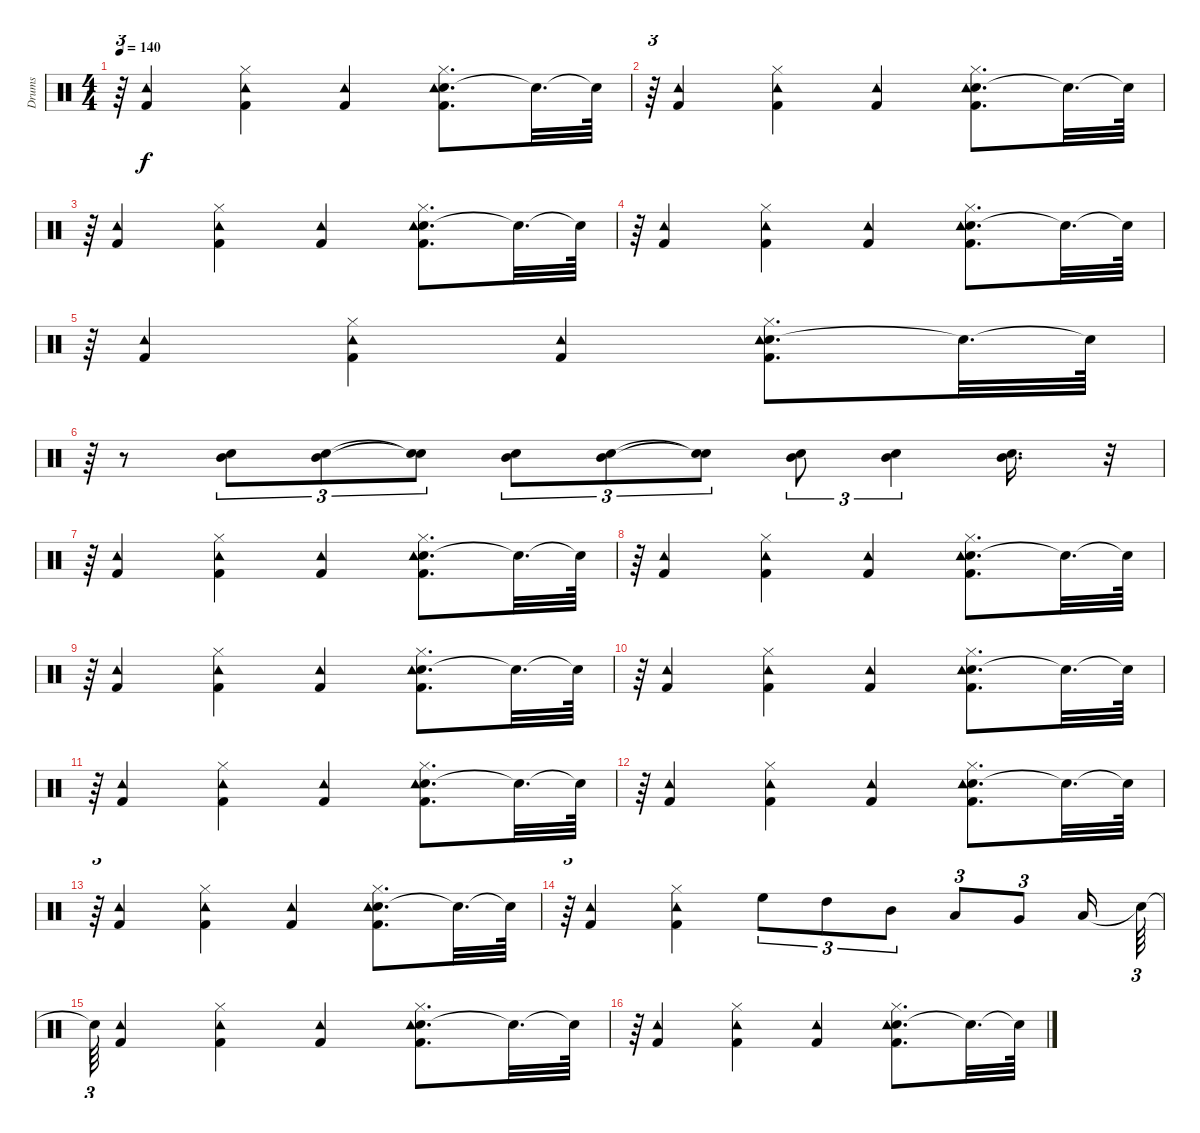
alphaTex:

\track ("Drums" "Drums") {instrument percussion}
\staff {score}
\articulation defaults
\ts (4 4)
\tempo 140
\clef neutral
\ks c
r.64{tu (3 2) dy f} ("Tambourine (hit)" "Kick (hit) 2").4 ("Hi-Hat (closed)" "Tambourine (hit)" "Kick (hit) 2").4 ("Tambourine (hit)" "Kick (hit) 2").4 ("Electric Snare (hit)" "Hi-Hat (closed)" "Tambourine (hit)" "Kick (hit) 2").8{d} "Snare (hit)"{t}.32{d} "Snare (hit)"{t}.64 |
r.64{tu (3 2)} ("Tambourine (hit)" "Kick (hit) 2").4 ("Hi-Hat (closed)" "Tambourine (hit)" "Kick (hit) 2").4 ("Tambourine (hit)" "Kick (hit) 2").4 ("Electric Snare (hit)" "Hi-Hat (closed)" "Tambourine (hit)" "Kick (hit) 2").8{d} "Snare (hit)"{t}.32{d} "Snare (hit)"{t}.64 |
r.64{tu (3 2)} ("Tambourine (hit)" "Kick (hit) 2").4 ("Hi-Hat (closed)" "Tambourine (hit)" "Kick (hit) 2").4 ("Tambourine (hit)" "Kick (hit) 2").4 ("Electric Snare (hit)" "Hi-Hat (closed)" "Tambourine (hit)" "Kick (hit) 2").8{d} "Snare (hit)"{t}.32{d} "Snare (hit)"{t}.64 |
r.64{tu (3 2)} ("Tambourine (hit)" "Kick (hit) 2").4 ("Hi-Hat (closed)" "Tambourine (hit)" "Kick (hit) 2").4 ("Tambourine (hit)" "Kick (hit) 2").4 ("Electric Snare (hit)" "Hi-Hat (closed)" "Tambourine (hit)" "Kick (hit) 2").8{d} "Snare (hit)"{t}.32{d} "Snare (hit)"{t}.64 |
r.64{tu (3 2)} ("Tambourine (hit)" "Kick (hit) 2").4 ("Hi-Hat (closed)" "Tambourine (hit)" "Kick (hit) 2").4 ("Tambourine (hit)" "Kick (hit) 2").4 ("Electric Snare (hit)" "Hi-Hat (closed)" "Tambourine (hit)" "Kick (hit) 2").8{d} "Snare (hit)"{t}.32{d} "Snare (hit)"{t}.64 |
r.64{tu (3 2)} r.8 ("Mid Tom (hit)" "Electric Snare (hit)").8{tu (3 2)} ("Mid Tom (hit)" "Electric Snare (hit)").8{tu (3 2)} ("Snare (hit)"{t} "Snare (hit)"{t}).8{tu (3 2)} ("Mid Tom (hit)" "Electric Snare (hit)").8{tu (3 2)} ("Mid Tom (hit)" "Electric Snare (hit)").8{tu (3 2)} ("Snare (hit)"{t} "Snare (hit)"{t}).8{tu (3 2)} ("Mid Tom (hit)" "Electric Snare (hit)").8{tu (3 2)} ("Mid Tom (hit)" "Electric Snare (hit)").4{tu (3 2)} ("Mid Tom (hit)" "Electric Snare (hit)").16{d} r.32{tu (3 2)} |
r.64{tu (3 2)} ("Tambourine (hit)" "Kick (hit) 2").4 ("Hi-Hat (closed)" "Tambourine (hit)" "Kick (hit) 2").4 ("Tambourine (hit)" "Kick (hit) 2").4 ("Electric Snare (hit)" "Hi-Hat (closed)" "Tambourine (hit)" "Kick (hit) 2").8{d} "Snare (hit)"{t}.32{d} "Snare (hit)"{t}.64 |
r.64{tu (3 2)} ("Tambourine (hit)" "Kick (hit) 2").4 ("Hi-Hat (closed)" "Tambourine (hit)" "Kick (hit) 2").4 ("Tambourine (hit)" "Kick (hit) 2").4 ("Electric Snare (hit)" "Hi-Hat (closed)" "Tambourine (hit)" "Kick (hit) 2").8{d} "Snare (hit)"{t}.32{d} "Snare (hit)"{t}.64 |
r.64{tu (3 2)} ("Tambourine (hit)" "Kick (hit) 2").4 ("Hi-Hat (closed)" "Tambourine (hit)" "Kick (hit) 2").4 ("Tambourine (hit)" "Kick (hit) 2").4 ("Electric Snare (hit)" "Hi-Hat (closed)" "Tambourine (hit)" "Kick (hit) 2").8{d} "Snare (hit)"{t}.32{d} "Snare (hit)"{t}.64 |
r.64{tu (3 2)} ("Tambourine (hit)" "Kick (hit) 2").4 ("Hi-Hat (closed)" "Tambourine (hit)" "Kick (hit) 2").4 ("Tambourine (hit)" "Kick (hit) 2").4 ("Electric Snare (hit)" "Hi-Hat (closed)" "Tambourine (hit)" "Kick (hit) 2").8{d} "Snare (hit)"{t}.32{d} "Snare (hit)"{t}.64 |
r.64{tu (3 2)} ("Tambourine (hit)" "Kick (hit) 2").4 ("Hi-Hat (closed)" "Tambourine (hit)" "Kick (hit) 2").4 ("Tambourine (hit)" "Kick (hit) 2").4 ("Electric Snare (hit)" "Hi-Hat (closed)" "Tambourine (hit)" "Kick (hit) 2").8{d} "Snare (hit)"{t}.32{d} "Snare (hit)"{t}.64 |
r.64{tu (3 2)} ("Tambourine (hit)" "Kick (hit) 2").4 ("Hi-Hat (closed)" "Tambourine (hit)" "Kick (hit) 2").4 ("Tambourine (hit)" "Kick (hit) 2").4 ("Electric Snare (hit)" "Hi-Hat (closed)" "Tambourine (hit)" "Kick (hit) 2").8{d} "Snare (hit)"{t}.32{d} "Snare (hit)"{t}.64 |
r.64{tu (3 2)} ("Tambourine (hit)" "Kick (hit) 2").4 ("Hi-Hat (closed)" "Tambourine (hit)" "Kick (hit) 2").4 ("Tambourine (hit)" "Kick (hit) 2").4 ("Electric Snare (hit)" "Hi-Hat (closed)" "Tambourine (hit)" "Kick (hit) 2").8{d} "Snare (hit)"{t}.32{d} "Snare (hit)"{t}.64 |
r.64{tu (3 2)} ("Tambourine (hit)" "Kick (hit) 2").4 ("Hi-Hat (closed)" "Tambourine (hit)" "Kick (hit) 2").4 "High Floor Tom (hit)".8{tu (3 2)} "High Tom (hit)".8{tu (3 2)} "Mid Tom (hit)".8{tu (3 2)} "Low Tom (hit)".8{tu (3 2)} "Very Low Tom (hit)".8{tu (3 2)} "Low Floor Tom (hit)".16 "Snare (hit)"{t}.64{tu (3 2)} |
"Snare (hit)"{t}.64{tu (3 2)} ("Tambourine (hit)" "Kick (hit) 2").4 ("Hi-Hat (closed)" "Tambourine (hit)" "Kick (hit) 2").4 ("Tambourine (hit)" "Kick (hit) 2").4 ("Electric Snare (hit)" "Hi-Hat (closed)" "Tambourine (hit)" "Kick (hit) 2").8{d} "Snare (hit)"{t}.32{d} "Snare (hit)"{t}.64 |
r.64{tu (3 2)} ("Tambourine (hit)" "Kick (hit) 2").4 ("Hi-Hat (closed)" "Tambourine (hit)" "Kick (hit) 2").4 ("Tambourine (hit)" "Kick (hit) 2").4 ("Electric Snare (hit)" "Hi-Hat (closed)" "Tambourine (hit)" "Kick (hit) 2").8{d} "Snare (hit)"{t}.32{d} "Snare (hit)"{t}.64
